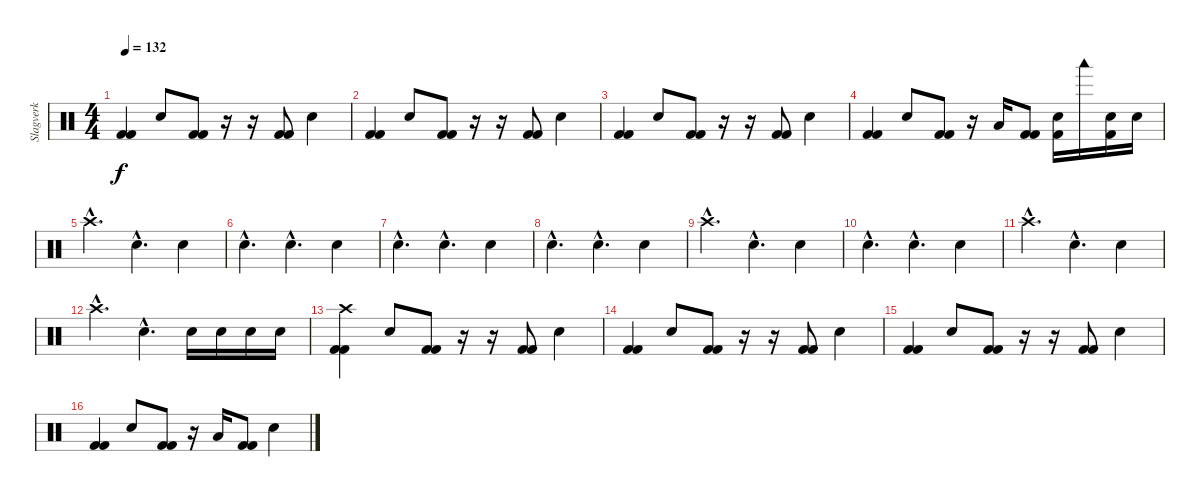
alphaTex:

\track ("Slagverk" "Slagverk") {instrument percussion}
\staff {score}
\articulation defaults
\ts (4 4)
\tempo 132
\clef neutral
\ks c
("Kick (hit) 2" "Kick (hit) 2").4{dy f} "Electric Snare (hit)".8 ("Kick (hit) 2" "Kick (hit) 2").8 r.16 r.16 ("Kick (hit) 2" "Kick (hit) 2").8 "Electric Snare (hit)".4 |
("Kick (hit) 2" "Kick (hit) 2").4 "Electric Snare (hit)".8 ("Kick (hit) 2" "Kick (hit) 2").8 r.16 r.16 ("Kick (hit) 2" "Kick (hit) 2").8 "Electric Snare (hit)".4 |
("Kick (hit) 2" "Kick (hit) 2").4 "Electric Snare (hit)".8 ("Kick (hit) 2" "Kick (hit) 2").8 r.16 r.16 ("Kick (hit) 2" "Kick (hit) 2").8 "Electric Snare (hit)".4 |
("Kick (hit) 2" "Kick (hit) 2").4 "Electric Snare (hit)".8 ("Kick (hit) 2" "Kick (hit) 2").8 r.16 "Low Tom (hit)".16 ("Kick (hit) 2" "Kick (hit) 2").8 ("Electric Snare (hit)" "Kick (hit) 2").16 "Woodblock low (hit)".16 ("Electric Snare (hit)" "Kick (hit) 2").16 "Electric Snare (hit)".16 |
"Crash high (hit)"{hac}.4{d} "Electric Snare (hit)"{hac}.4{d} "Electric Snare (hit)".4 |
"Electric Snare (hit)"{hac}.4{d} "Electric Snare (hit)"{hac}.4{d} "Electric Snare (hit)".4 |
"Electric Snare (hit)"{hac}.4{d} "Electric Snare (hit)"{hac}.4{d} "Electric Snare (hit)".4 |
"Electric Snare (hit)"{hac}.4{d} "Electric Snare (hit)"{hac}.4{d} "Electric Snare (hit)".4 |
"Crash high (hit)"{hac}.4{d} "Electric Snare (hit)"{hac}.4{d} "Electric Snare (hit)".4 |
"Electric Snare (hit)"{hac}.4{d} "Electric Snare (hit)"{hac}.4{d} "Electric Snare (hit)".4 |
"Crash high (hit)"{hac}.4{d} "Electric Snare (hit)"{hac}.4{d} "Electric Snare (hit)".4 |
"Crash high (hit)"{hac}.4{d} "Electric Snare (hit)"{hac}.4{d} "Electric Snare (hit)".16 "Electric Snare (hit)".16 "Electric Snare (hit)".16 "Electric Snare (hit)".16 |
("Kick (hit) 2" "Kick (hit) 2" "Crash high (hit)").4 "Electric Snare (hit)".8 ("Kick (hit) 2" "Kick (hit) 2").8 r.16 r.16 ("Kick (hit) 2" "Kick (hit) 2").8 "Electric Snare (hit)".4 |
("Kick (hit) 2" "Kick (hit) 2").4 "Electric Snare (hit)".8 ("Kick (hit) 2" "Kick (hit) 2").8 r.16 r.16 ("Kick (hit) 2" "Kick (hit) 2").8 "Electric Snare (hit)".4 |
("Kick (hit) 2" "Kick (hit) 2").4 "Electric Snare (hit)".8 ("Kick (hit) 2" "Kick (hit) 2").8 r.16 r.16 ("Kick (hit) 2" "Kick (hit) 2").8 "Electric Snare (hit)".4 |
("Kick (hit) 2" "Kick (hit) 2").4 "Electric Snare (hit)".8 ("Kick (hit) 2" "Kick (hit) 2").8 r.16 "Low Tom (hit)".16 ("Kick (hit) 2" "Kick (hit) 2").8 "Electric Snare (hit)".4
